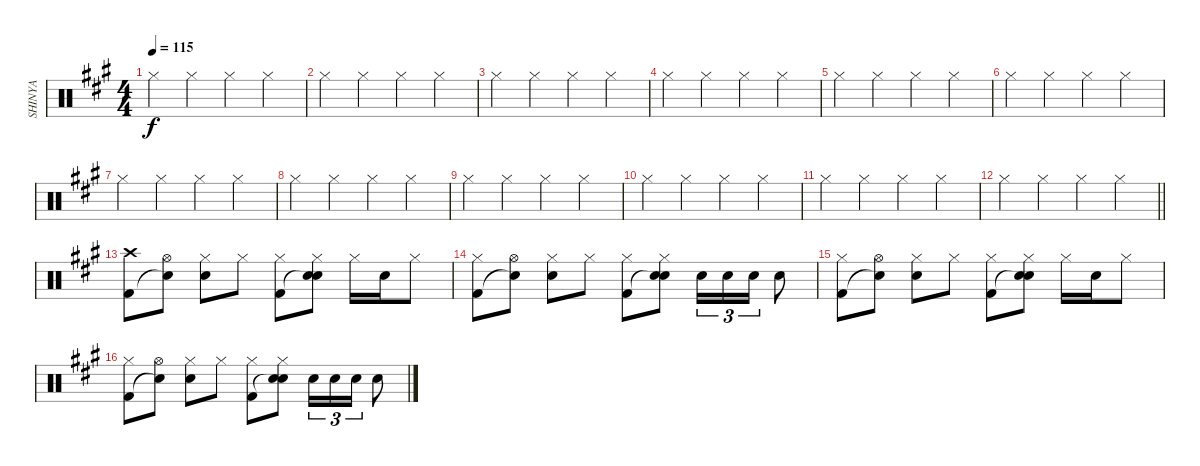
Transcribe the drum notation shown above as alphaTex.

\track ("SHINYA" "SHINYA") {instrument percussion}
\staff {score}
\articulation defaults
\ts (4 4)
\tempo 115
\clef neutral
\ks a "Hi-Hat (closed)".4{dy f} "Hi-Hat (closed)".4 "Hi-Hat (closed)".4 "Hi-Hat (closed)".4
|
"Hi-Hat (closed)".4 "Hi-Hat (closed)".4 "Hi-Hat (closed)".4 "Hi-Hat (closed)".4 |
"Hi-Hat (closed)".4 "Hi-Hat (closed)".4 "Hi-Hat (closed)".4 "Hi-Hat (closed)".4 |
"Hi-Hat (closed)".4 "Hi-Hat (closed)".4 "Hi-Hat (closed)".4 "Hi-Hat (closed)".4 |
"Hi-Hat (closed)".4 "Hi-Hat (closed)".4 "Hi-Hat (closed)".4 "Hi-Hat (closed)".4 |
"Hi-Hat (closed)".4 "Hi-Hat (closed)".4 "Hi-Hat (closed)".4 "Hi-Hat (closed)".4 |
"Hi-Hat (closed)".4 "Hi-Hat (closed)".4 "Hi-Hat (closed)".4 "Hi-Hat (closed)".4 |
"Hi-Hat (closed)".4 "Hi-Hat (closed)".4 "Hi-Hat (closed)".4 "Hi-Hat (closed)".4 |
"Hi-Hat (closed)".4 "Hi-Hat (closed)".4 "Hi-Hat (closed)".4 "Hi-Hat (closed)".4 |
"Hi-Hat (closed)".4 "Hi-Hat (closed)".4 "Hi-Hat (closed)".4 "Hi-Hat (closed)".4 |
"Hi-Hat (closed)".4 "Hi-Hat (closed)".4 "Hi-Hat (closed)".4 "Hi-Hat (closed)".4 |
\barLineRight lightlight "Hi-Hat (closed)".4 "Hi-Hat (closed)".4 "Hi-Hat (closed)".4 "Hi-Hat (closed)".4
|
("Crash high (hit)" "Kick (hit) 2").8 ("Hi-Hat (open)" "Snare (hit)"{t}).8 ("Hi-Hat (closed)" "Electric Snare (hit)").8 "Hi-Hat (closed)".8 ("Hi-Hat (closed)" "Kick (hit) 2").8 ("Hi-Hat (closed)" "Snare (hit)"{t} "Electric Snare (hit)").8 "Hi-Hat (closed)".16 "Electric Snare (hit)".16 "Hi-Hat (closed)".8 |
("Hi-Hat (closed)" "Kick (hit) 2").8 ("Hi-Hat (open)" "Snare (hit)"{t}).8 ("Hi-Hat (closed)" "Electric Snare (hit)").8 "Hi-Hat (closed)".8 ("Hi-Hat (closed)" "Kick (hit) 2").8 ("Hi-Hat (closed)" "Snare (hit)"{t} "Electric Snare (hit)").8 "Electric Snare (hit)".16{tu (3 2)} "Electric Snare (hit)".16{tu (3 2)} "Electric Snare (hit)".16{tu (3 2)} "Electric Snare (hit)".8 |
("Hi-Hat (closed)" "Kick (hit) 2").8 ("Hi-Hat (open)" "Snare (hit)"{t}).8 ("Hi-Hat (closed)" "Electric Snare (hit)").8 "Hi-Hat (closed)".8 ("Hi-Hat (closed)" "Kick (hit) 2").8 ("Hi-Hat (closed)" "Snare (hit)"{t} "Electric Snare (hit)").8 "Hi-Hat (closed)".16 "Electric Snare (hit)".16 "Hi-Hat (closed)".8 |
("Hi-Hat (closed)" "Kick (hit) 2").8 ("Hi-Hat (open)" "Snare (hit)"{t}).8 ("Hi-Hat (closed)" "Electric Snare (hit)").8 "Hi-Hat (closed)".8 ("Hi-Hat (closed)" "Kick (hit) 2").8 ("Hi-Hat (closed)" "Snare (hit)"{t} "Electric Snare (hit)").8 "Electric Snare (hit)".16{tu (3 2)} "Electric Snare (hit)".16{tu (3 2)} "Electric Snare (hit)".16{tu (3 2)} "Electric Snare (hit)".8
